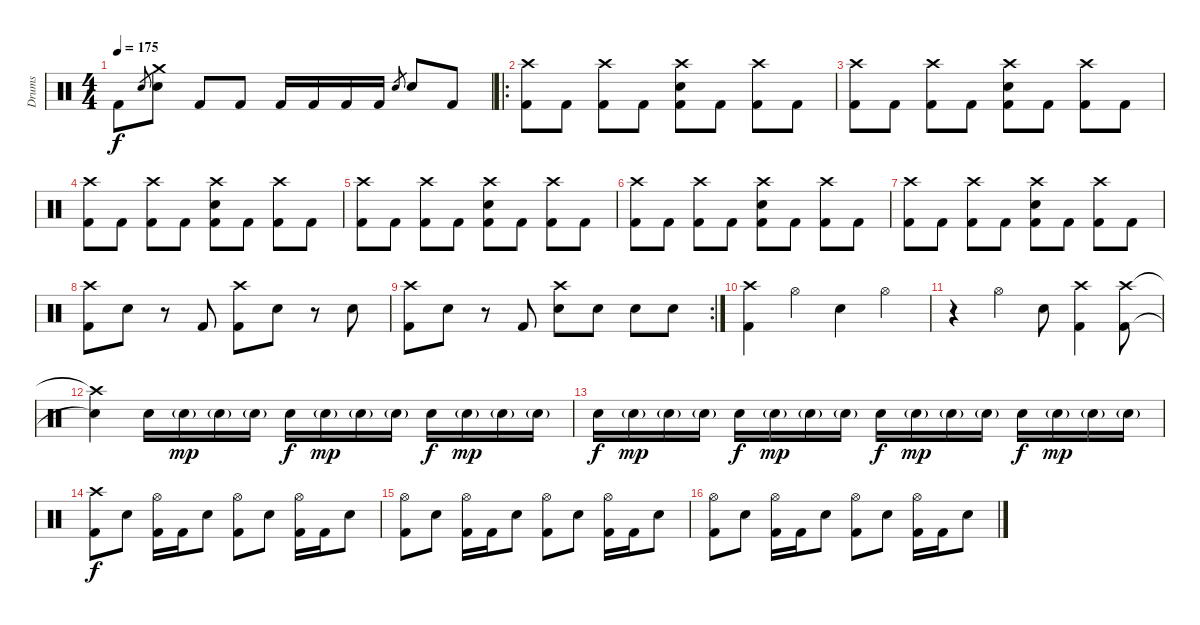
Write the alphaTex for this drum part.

\track ("Drums" "Drums") {instrument percussion}
\staff {score}
\articulation defaults
\ts (4 4)
\tempo 175
\clef neutral
\ks c "Kick (hit) 2".8{dy f} "Electric Snare (hit)".8{gr}
("Crash medium (hit)" "Electric Snare (hit)").8 "Kick (hit) 2".8 "Kick (hit) 2".8 "Kick (hit) 2".16 "Kick (hit) 2".16 "Kick (hit) 2".16 "Kick (hit) 2".16 "Electric Snare (hit)".8{gr} "Electric Snare (hit)".8 "Kick (hit) 2".8 |
\ro
("Crash high (hit)" "Kick (hit) 2").8 "Kick (hit) 2".8 ("Crash high (hit)" "Kick (hit) 2").8 "Kick (hit) 2".8 ("Crash high (hit)" "Electric Snare (hit)" "Kick (hit) 2").8 "Kick (hit) 2".8 ("Crash high (hit)" "Kick (hit) 2").8 "Kick (hit) 2".8 |
("Crash high (hit)" "Kick (hit) 2").8 "Kick (hit) 2".8 ("Crash high (hit)" "Kick (hit) 2").8 "Kick (hit) 2".8 ("Crash high (hit)" "Electric Snare (hit)" "Kick (hit) 2").8 "Kick (hit) 2".8 ("Crash high (hit)" "Kick (hit) 2").8 "Kick (hit) 2".8 |
("Crash high (hit)" "Kick (hit) 2").8 "Kick (hit) 2".8 ("Crash high (hit)" "Kick (hit) 2").8 "Kick (hit) 2".8 ("Crash high (hit)" "Electric Snare (hit)" "Kick (hit) 2").8 "Kick (hit) 2".8 ("Crash high (hit)" "Kick (hit) 2").8 "Kick (hit) 2".8 |
("Crash high (hit)" "Kick (hit) 2").8 "Kick (hit) 2".8 ("Crash high (hit)" "Kick (hit) 2").8 "Kick (hit) 2".8 ("Crash high (hit)" "Electric Snare (hit)" "Kick (hit) 2").8 "Kick (hit) 2".8 ("Crash high (hit)" "Kick (hit) 2").8 "Kick (hit) 2".8 |
("Crash high (hit)" "Kick (hit) 2").8 "Kick (hit) 2".8 ("Crash high (hit)" "Kick (hit) 2").8 "Kick (hit) 2".8 ("Crash high (hit)" "Electric Snare (hit)" "Kick (hit) 2").8 "Kick (hit) 2".8 ("Crash high (hit)" "Kick (hit) 2").8 "Kick (hit) 2".8 |
("Crash high (hit)" "Kick (hit) 2").8 "Kick (hit) 2".8 ("Crash high (hit)" "Kick (hit) 2").8 "Kick (hit) 2".8 ("Crash high (hit)" "Electric Snare (hit)" "Kick (hit) 2").8 "Kick (hit) 2".8 ("Crash high (hit)" "Kick (hit) 2").8 "Kick (hit) 2".8 |
("Crash high (hit)" "Kick (hit) 2").8 "Electric Snare (hit)".8 r.8 "Kick (hit) 2".8 ("Crash high (hit)" "Kick (hit) 2").8 "Electric Snare (hit)".8 r.8 "Electric Snare (hit)".8 |
\rc 2
("Crash high (hit)" "Kick (hit) 2").8 "Electric Snare (hit)".8 r.8 "Kick (hit) 2".8 ("Crash high (hit)" "Electric Snare (hit)").8 "Electric Snare (hit)".8 "Electric Snare (hit)".8 "Electric Snare (hit)".8 |
("Crash high (hit)" "Kick (hit) 2").4 "Hi-Hat (open)".4 "Electric Snare (hit)".4 "Hi-Hat (open)".4 |
r.4 "Hi-Hat (open)".4 "Electric Snare (hit)".8 ("Crash high (hit)" "Kick (hit) 2").4 ("Crash high (hit)" "Kick (hit) 2").8 |
("Crash high (hit)"{t} "Snare (hit)"{t}).4 "Electric Snare (hit)".16 "Electric Snare (hit)"{g}.16{dy mp} "Electric Snare (hit)"{g}.16 "Electric Snare (hit)"{g}.16 "Electric Snare (hit)".16{dy f} "Electric Snare (hit)"{g}.16{dy mp} "Electric Snare (hit)"{g}.16 "Electric Snare (hit)"{g}.16 "Electric Snare (hit)".16{dy f} "Electric Snare (hit)"{g}.16{dy mp} "Electric Snare (hit)"{g}.16 "Electric Snare (hit)"{g}.16 |
"Electric Snare (hit)".16{dy f} "Electric Snare (hit)"{g}.16{dy mp} "Electric Snare (hit)"{g}.16 "Electric Snare (hit)"{g}.16 "Electric Snare (hit)".16{dy f} "Electric Snare (hit)"{g}.16{dy mp} "Electric Snare (hit)"{g}.16 "Electric Snare (hit)"{g}.16 "Electric Snare (hit)".16{dy f} "Electric Snare (hit)"{g}.16{dy mp} "Electric Snare (hit)"{g}.16 "Electric Snare (hit)"{g}.16 "Electric Snare (hit)".16{dy f} "Electric Snare (hit)"{g}.16{dy mp} "Electric Snare (hit)"{g}.16 "Electric Snare (hit)"{g}.16 |
("Crash high (hit)" "Kick (hit) 2").8{dy f} "Electric Snare (hit)".8 ("Hi-Hat (open)" "Kick (hit) 2").16 "Kick (hit) 2".16 "Electric Snare (hit)".8 ("Hi-Hat (open)" "Kick (hit) 2").8 "Electric Snare (hit)".8 ("Hi-Hat (open)" "Kick (hit) 2").16 "Kick (hit) 2".16 "Electric Snare (hit)".8 |
("Hi-Hat (open)" "Kick (hit) 2").8 "Electric Snare (hit)".8 ("Hi-Hat (open)" "Kick (hit) 2").16 "Kick (hit) 2".16 "Electric Snare (hit)".8 ("Hi-Hat (open)" "Kick (hit) 2").8 "Electric Snare (hit)".8 ("Hi-Hat (open)" "Kick (hit) 2").16 "Kick (hit) 2".16 "Electric Snare (hit)".8 |
("Hi-Hat (open)" "Kick (hit) 2").8 "Electric Snare (hit)".8 ("Hi-Hat (open)" "Kick (hit) 2").16 "Kick (hit) 2".16 "Electric Snare (hit)".8 ("Hi-Hat (open)" "Kick (hit) 2").8 "Electric Snare (hit)".8 ("Hi-Hat (open)" "Kick (hit) 2").16 "Kick (hit) 2".16 "Electric Snare (hit)".8
